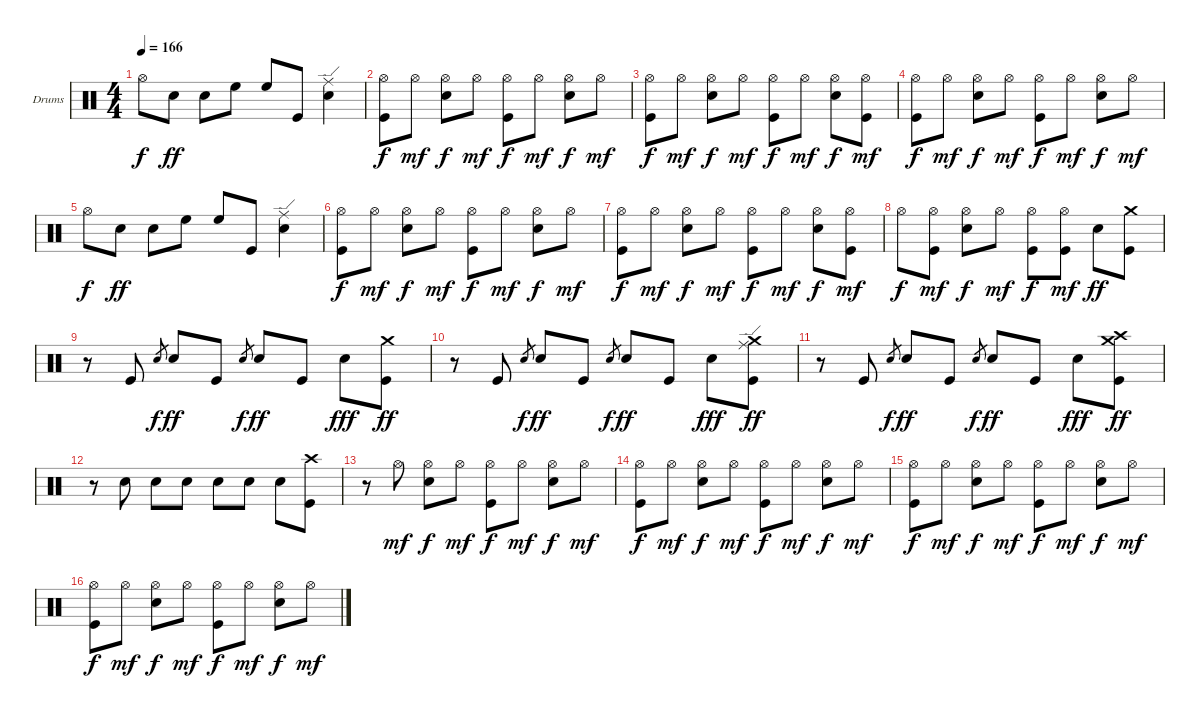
\defaultSystemsLayout 4
\bracketExtendMode groupsimilarinstruments
\firstSystemTrackNameOrientation horizontal
\otherSystemsTrackNameOrientation horizontal
\track ("Lars Ulrich" "Drums") {instrument percussion}
\staff {score}
\articulation defaults
\ts (4 4)
\tempo 166
\clef neutral
\scale
0.333333
\ks c "Hi-Hat (open)".8{dy f} "Snare (hit) 2".8{dy ff} "Snare (hit) 2".8 "High Floor Tom (hit)".8 "High Floor Tom (hit)".8 "Kick (hit)".8
("Ride (edge)" "Snare (hit) 2").4 |
\scale
0.333333 ("Hi-Hat (open)" "Kick (hit)").8{dy f} "Hi-Hat (open)".8{dy mf} ("Hi-Hat (open)" "Snare (hit) 2").8{dy f} "Hi-Hat (open)".8{dy mf} ("Hi-Hat (open)" "Kick (hit)").8{dy f} "Hi-Hat (open)".8{dy mf} ("Hi-Hat (open)" "Snare (hit) 2").8{dy f} "Hi-Hat (open)".8{dy mf} |
\scale
0.333333 ("Hi-Hat (open)" "Kick (hit)").8{dy f} "Hi-Hat (open)".8{dy mf} ("Hi-Hat (open)" "Snare (hit) 2").8{dy f} "Hi-Hat (open)".8{dy mf} ("Hi-Hat (open)" "Kick (hit)").8{dy f} "Hi-Hat (open)".8{dy mf} ("Hi-Hat (open)" "Snare (hit) 2").8{dy f} ("Hi-Hat (open)" "Kick (hit)").8{dy mf} |
\scale
0.333333 ("Hi-Hat (open)" "Kick (hit)").8{dy f} "Hi-Hat (open)".8{dy mf} ("Hi-Hat (open)" "Snare (hit) 2").8{dy f} "Hi-Hat (open)".8{dy mf} ("Hi-Hat (open)" "Kick (hit)").8{dy f} "Hi-Hat (open)".8{dy mf} ("Hi-Hat (open)" "Snare (hit) 2").8{dy f} "Hi-Hat (open)".8{dy mf} |
\scale
0.333333 "Hi-Hat (open)".8{dy f} "Snare (hit) 2".8{dy ff} "Snare (hit) 2".8 "High Floor Tom (hit)".8 "High Floor Tom (hit)".8 "Kick (hit)".8 ("Ride (edge)" "Snare (hit) 2").4 |
\scale
0.333333 ("Hi-Hat (open)" "Kick (hit)").8{dy f} "Hi-Hat (open)".8{dy mf} ("Hi-Hat (open)" "Snare (hit) 2").8{dy f} "Hi-Hat (open)".8{dy mf} ("Hi-Hat (open)" "Kick (hit)").8{dy f} "Hi-Hat (open)".8{dy mf} ("Hi-Hat (open)" "Snare (hit) 2").8{dy f} "Hi-Hat (open)".8{dy mf} |
\scale
0.333333 ("Hi-Hat (open)" "Kick (hit)").8{dy f} "Hi-Hat (open)".8{dy mf} ("Hi-Hat (open)" "Snare (hit) 2").8{dy f} "Hi-Hat (open)".8{dy mf} ("Hi-Hat (open)" "Kick (hit)").8{dy f} "Hi-Hat (open)".8{dy mf} ("Hi-Hat (open)" "Snare (hit) 2").8{dy f} ("Hi-Hat (open)" "Kick (hit)").8{dy mf} |
\scale
0.333333 "Hi-Hat (open)".8{dy f} ("Hi-Hat (open)" "Kick (hit)").8{dy mf} ("Hi-Hat (open)" "Snare (hit) 2").8{dy f} "Hi-Hat (open)".8{dy mf} ("Hi-Hat (open)" "Kick (hit)").8{dy f} ("Hi-Hat (open)" "Kick (hit)").8{dy mf} "Snare (hit) 2".8{dy ff} ("Crash medium (hit)" "Kick (hit)").8 |
\scale
0.333333 r.8 "Kick (hit)".8 "Snare (hit) 2".8{gr dy f} "Snare (hit) 2".8{dy ff} "Kick (hit)".8 "Snare (hit) 2".8{gr dy f} "Snare (hit) 2".8{dy ff} "Kick (hit)".8 "Snare (hit) 2".8{dy fff} ("Crash medium (hit)" "Kick (hit)").8{dy ff} |
\scale
0.333333 r.8 "Kick (hit)".8 "Snare (hit) 2".8{gr dy f} "Snare (hit) 2".8{dy ff} "Kick (hit)".8 "Snare (hit) 2".8{gr dy f} "Snare (hit) 2".8{dy ff} "Kick (hit)".8 "Snare (hit) 2".8{dy fff} ("Ride (edge)" "Crash medium (hit)" "Kick (hit)").8{dy ff} |
\scale
0.333333 r.8 "Kick (hit)".8 "Snare (hit) 2".8{gr dy f} "Snare (hit) 2".8{dy ff} "Kick (hit)".8 "Snare (hit) 2".8{gr dy f} "Snare (hit) 2".8{dy ff} "Kick (hit)".8 "Snare (hit) 2".8{dy fff} ("Crash high (hit)" "Crash medium (hit)" "Kick (hit)").8{dy ff} |
\scale
0.333333 r.8 "Snare (hit) 2".8 "Snare (hit) 2".8 "Snare (hit) 2".8 "Snare (hit) 2".8 "Snare (hit) 2".8 "Snare (hit) 2".8 ("Crash high (hit)" "Kick (hit)").8 |
\scale
0.333333 r.8 "Hi-Hat (open)".8{dy mf} ("Hi-Hat (open)" "Snare (hit) 2").8{dy f} "Hi-Hat (open)".8{dy mf} ("Hi-Hat (open)" "Kick (hit)").8{dy f} "Hi-Hat (open)".8{dy mf} ("Hi-Hat (open)" "Snare (hit) 2").8{dy f} "Hi-Hat (open)".8{dy mf} |
\scale
0.333333 ("Hi-Hat (open)" "Kick (hit)").8{dy f} "Hi-Hat (open)".8{dy mf} ("Hi-Hat (open)" "Snare (hit) 2").8{dy f} "Hi-Hat (open)".8{dy mf} ("Hi-Hat (open)" "Kick (hit)").8{dy f} "Hi-Hat (open)".8{dy mf} ("Hi-Hat (open)" "Snare (hit) 2").8{dy f} "Hi-Hat (open)".8{dy mf} |
\scale
0.333333 ("Hi-Hat (open)" "Kick (hit)").8{dy f} "Hi-Hat (open)".8{dy mf} ("Hi-Hat (open)" "Snare (hit) 2").8{dy f} "Hi-Hat (open)".8{dy mf} ("Hi-Hat (open)" "Kick (hit)").8{dy f} "Hi-Hat (open)".8{dy mf} ("Hi-Hat (open)" "Snare (hit) 2").8{dy f} "Hi-Hat (open)".8{dy mf} |
\scale
0.333333 ("Hi-Hat (open)" "Kick (hit)").8{dy f} "Hi-Hat (open)".8{dy mf} ("Hi-Hat (open)" "Snare (hit) 2").8{dy f} "Hi-Hat (open)".8{dy mf} ("Hi-Hat (open)" "Kick (hit)").8{dy f} "Hi-Hat (open)".8{dy mf} ("Hi-Hat (open)" "Snare (hit) 2").8{dy f} "Hi-Hat (open)".8{dy mf}
